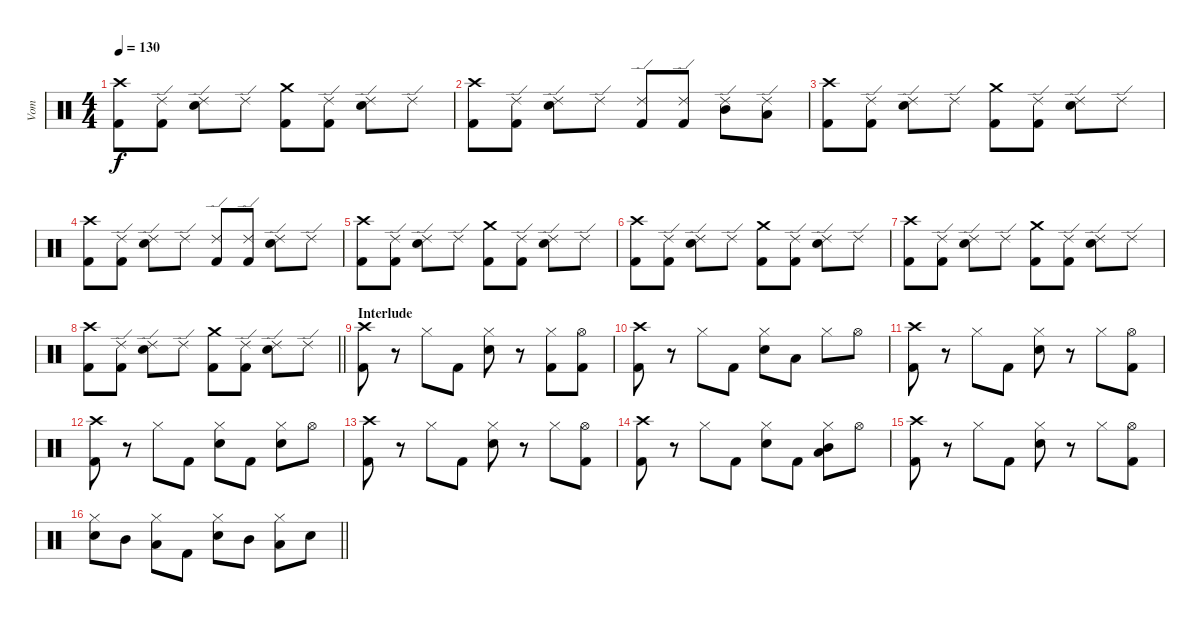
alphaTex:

\track ("Vom" "Vom") {instrument percussion}
\staff {score}
\articulation defaults
\ts (4 4)
\tempo 130
\clef neutral
\ks c
("Crash high (hit)" "Kick (hit) 2").8{dy f} ("Ride (edge) 2" "Kick (hit) 2").8 ("Ride (edge) 2" "Snare (hit) 2").8 "Ride (edge) 2".8 ("Crash medium (hit)" "Kick (hit) 2").8 ("Ride (edge) 2" "Kick (hit) 2").8 ("Ride (edge) 2" "Snare (hit) 2").8 "Ride (edge) 2".8 |
("Crash high (hit)" "Kick (hit) 2").8 ("Ride (edge) 2" "Kick (hit) 2").8 ("Ride (edge) 2" "Snare (hit) 2").8 "Ride (edge) 2".8 ("Ride (edge) 2" "Kick (hit) 2").8 ("Ride (edge) 2" "Kick (hit) 2").8 ("Ride (edge) 2" "Mid Tom (hit)").8 ("Ride (edge) 2" "Low Tom (hit)").8 |
("Crash high (hit)" "Kick (hit) 2").8 ("Ride (edge) 2" "Kick (hit) 2").8 ("Ride (edge) 2" "Snare (hit) 2").8 "Ride (edge) 2".8 ("Crash medium (hit)" "Kick (hit) 2").8 ("Ride (edge) 2" "Kick (hit) 2").8 ("Ride (edge) 2" "Snare (hit) 2").8 "Ride (edge) 2".8 |
("Crash high (hit)" "Kick (hit) 2").8 ("Ride (edge) 2" "Kick (hit) 2").8 ("Ride (edge) 2" "Snare (hit) 2").8 "Ride (edge) 2".8 ("Ride (edge) 2" "Kick (hit) 2").8 ("Ride (edge) 2" "Kick (hit) 2").8 ("Ride (edge) 2" "Snare (hit) 2").8 "Ride (edge) 2".8 |
("Crash high (hit)" "Kick (hit) 2").8 ("Ride (edge) 2" "Kick (hit) 2").8 ("Ride (edge) 2" "Snare (hit) 2").8 "Ride (edge) 2".8 ("Crash medium (hit)" "Kick (hit) 2").8 ("Ride (edge) 2" "Kick (hit) 2").8 ("Ride (edge) 2" "Snare (hit) 2").8 "Ride (edge) 2".8 |
("Crash high (hit)" "Kick (hit) 2").8 ("Ride (edge) 2" "Kick (hit) 2").8 ("Ride (edge) 2" "Snare (hit) 2").8 "Ride (edge) 2".8 ("Crash medium (hit)" "Kick (hit) 2").8 ("Ride (edge) 2" "Kick (hit) 2").8 ("Ride (edge) 2" "Snare (hit) 2").8 "Ride (edge) 2".8 |
("Crash high (hit)" "Kick (hit) 2").8 ("Ride (edge) 2" "Kick (hit) 2").8 ("Ride (edge) 2" "Snare (hit) 2").8 "Ride (edge) 2".8 ("Crash medium (hit)" "Kick (hit) 2").8 ("Ride (edge) 2" "Kick (hit) 2").8 ("Ride (edge) 2" "Snare (hit) 2").8 "Ride (edge) 2".8 |
\barLineRight lightlight
("Crash high (hit)" "Kick (hit) 2").8 ("Ride (edge) 2" "Kick (hit) 2").8 ("Ride (edge) 2" "Snare (hit) 2").8 "Ride (edge) 2".8 ("Crash medium (hit)" "Kick (hit) 2").8 ("Ride (edge) 2" "Kick (hit) 2").8 ("Ride (edge) 2" "Snare (hit) 2").8 "Ride (edge) 2".8 |
\section ("" "Interlude")
("Crash high (hit)" "Kick (hit) 2").8 r.8 "Hi-Hat (closed)".8 "Kick (hit) 2".8 ("Hi-Hat (closed)" "Snare (hit) 2").8 r.8 ("Hi-Hat (closed)" "Kick (hit) 2").8 ("Hi-Hat (open)" "Kick (hit) 2").8 |
("Crash high (hit)" "Kick (hit) 2").8 r.8 "Hi-Hat (closed)".8 "Kick (hit) 2".8 ("Hi-Hat (closed)" "Snare (hit) 2").8 "Low Tom (hit)".8 "Hi-Hat (closed)".8 "Hi-Hat (open)".8 |
("Crash high (hit)" "Kick (hit) 2").8 r.8 "Hi-Hat (closed)".8 "Kick (hit) 2".8 ("Hi-Hat (closed)" "Snare (hit) 2").8 r.8 "Hi-Hat (closed)".8 ("Hi-Hat (open)" "Kick (hit) 2").8 |
("Crash high (hit)" "Kick (hit) 2").8 r.8 "Hi-Hat (closed)".8 "Kick (hit) 2".8 ("Hi-Hat (closed)" "Snare (hit) 2").8 "Kick (hit) 2".8 ("Hi-Hat (closed)" "Snare (hit) 2").8 "Hi-Hat (open)".8 |
("Crash high (hit)" "Kick (hit) 2").8 r.8 "Hi-Hat (closed)".8 "Kick (hit) 2".8 ("Hi-Hat (closed)" "Snare (hit) 2").8 r.8 "Hi-Hat (closed)".8 ("Hi-Hat (open)" "Kick (hit) 2").8 |
("Crash high (hit)" "Kick (hit) 2").8 r.8 "Hi-Hat (closed)".8 "Kick (hit) 2".8 ("Hi-Hat (closed)" "Snare (hit) 2").8 "Kick (hit) 2".8 ("Hi-Hat (closed)" "Mid Tom (hit)" "Low Tom (hit)").8 "Hi-Hat (open)".8 |
("Crash high (hit)" "Kick (hit) 2").8 r.8 "Hi-Hat (closed)".8 "Kick (hit) 2".8 ("Hi-Hat (closed)" "Snare (hit) 2").8 r.8 "Hi-Hat (closed)".8 ("Hi-Hat (open)" "Kick (hit) 2").8 |
\barLineRight lightlight
("Hi-Hat (closed)" "Snare (hit) 2").8 "Mid Tom (hit)".8 ("Hi-Hat (closed)" "Low Tom (hit)").8 "Kick (hit) 2".8 ("Hi-Hat (closed)" "Snare (hit) 2").8 "Mid Tom (hit)".8 ("Hi-Hat (closed)" "Low Tom (hit)").8 "Snare (hit) 2".8
